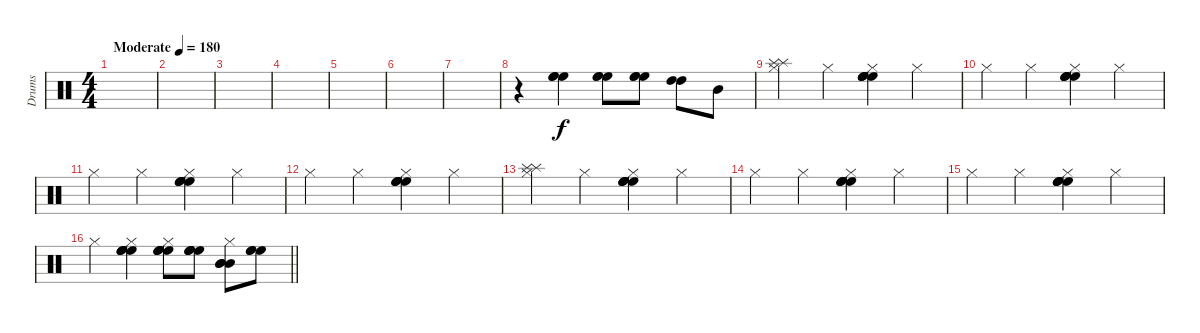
\track ("Drums" "Drums") {instrument percussion}
\staff {score}
\articulation defaults
\ts (4 4)
\tempo (180 "Moderate")
\clef neutral
\ks c
|
|
|
|
|
|
|
r.4 ("High Floor Tom (hit)" "High Floor Tom (hit)" "High Floor Tom (hit)").4 ("High Floor Tom (hit)" "High Floor Tom (hit)" "High Floor Tom (hit)").8 ("High Floor Tom (hit)" "High Floor Tom (hit)" "High Floor Tom (hit)").8 ("High Tom (hit)" "High Tom (hit)").8 "Mid Tom (hit)".8 |
("Splash (hit)" "Splash (hit)" "Hi-Hat (closed)").4 "Hi-Hat (closed)".4 ("High Floor Tom (hit)" "High Floor Tom (hit)" "High Floor Tom (hit)" "High Floor Tom (hit)" "Hi-Hat (closed)").4 "Hi-Hat (closed)".4 |
"Hi-Hat (closed)".4 "Hi-Hat (closed)".4 ("High Floor Tom (hit)" "High Floor Tom (hit)" "High Floor Tom (hit)" "High Floor Tom (hit)" "Hi-Hat (closed)").4 "Hi-Hat (closed)".4 |
"Hi-Hat (closed)".4 "Hi-Hat (closed)".4 ("High Floor Tom (hit)" "High Floor Tom (hit)" "High Floor Tom (hit)" "High Floor Tom (hit)" "Hi-Hat (closed)").4 "Hi-Hat (closed)".4 |
"Hi-Hat (closed)".4 "Hi-Hat (closed)".4 ("High Floor Tom (hit)" "High Floor Tom (hit)" "High Floor Tom (hit)" "High Floor Tom (hit)" "Hi-Hat (closed)").4 "Hi-Hat (closed)".4 |
("Splash (hit)" "Splash (hit)" "Hi-Hat (closed)").4 "Hi-Hat (closed)".4 ("High Floor Tom (hit)" "High Floor Tom (hit)" "High Floor Tom (hit)" "High Floor Tom (hit)" "Hi-Hat (closed)").4 "Hi-Hat (closed)".4 |
"Hi-Hat (closed)".4 "Hi-Hat (closed)".4 ("High Floor Tom (hit)" "High Floor Tom (hit)" "High Floor Tom (hit)" "High Floor Tom (hit)" "Hi-Hat (closed)").4 "Hi-Hat (closed)".4 |
"Hi-Hat (closed)".4 "Hi-Hat (closed)".4 ("High Floor Tom (hit)" "High Floor Tom (hit)" "High Floor Tom (hit)" "High Floor Tom (hit)" "Hi-Hat (closed)").4 "Hi-Hat (closed)".4 |
\barLineRight lightlight "Hi-Hat (closed)".4
("High Floor Tom (hit)" "High Floor Tom (hit)" "High Floor Tom (hit)" "High Floor Tom (hit)" "Hi-Hat (closed)").4 ("High Floor Tom (hit)" "High Floor Tom (hit)" "High Floor Tom (hit)" "High Floor Tom (hit)" "Hi-Hat (closed)").8 ("High Floor Tom (hit)" "High Floor Tom (hit)" "High Floor Tom (hit)" "High Floor Tom (hit)").8 ("Mid Tom (hit)" "Mid Tom (hit)" "Mid Tom (hit)" "Hi-Hat (closed)").8 ("High Floor Tom (hit)" "High Floor Tom (hit)" "High Floor Tom (hit)").8
